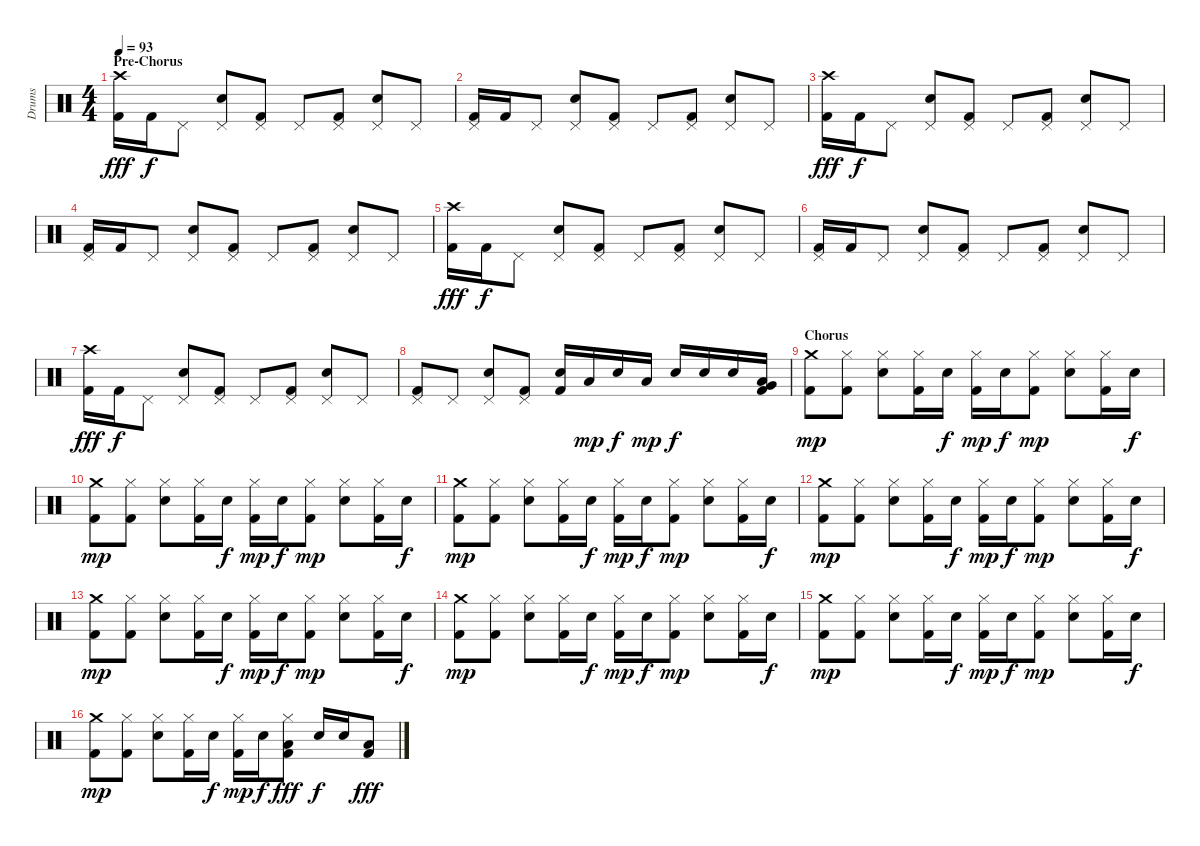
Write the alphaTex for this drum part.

\track ("Drums" "Drums") {instrument percussion}
\staff {score}
\articulation defaults
\ts (4 4)
\section ("" "Pre-Chorus")
\tempo 93
\clef neutral
\ks c
("Crash high (hit)" "Kick (hit) 2").16{dy fff} "Kick (hit) 2".16{dy f} "Pedal Hi-Hat (hit)".8 ("Pedal Hi-Hat (hit)" "Electric Snare (hit)").8 ("Pedal Hi-Hat (hit)" "Kick (hit) 2").8 "Pedal Hi-Hat (hit)".8 ("Pedal Hi-Hat (hit)" "Kick (hit) 2").8 ("Pedal Hi-Hat (hit)" "Electric Snare (hit)").8 "Pedal Hi-Hat (hit)".8 |
("Pedal Hi-Hat (hit)" "Kick (hit) 2").16 "Kick (hit) 2".16 "Pedal Hi-Hat (hit)".8 ("Pedal Hi-Hat (hit)" "Electric Snare (hit)").8 ("Pedal Hi-Hat (hit)" "Kick (hit) 2").8 "Pedal Hi-Hat (hit)".8 ("Pedal Hi-Hat (hit)" "Kick (hit) 2").8 ("Pedal Hi-Hat (hit)" "Electric Snare (hit)").8 "Pedal Hi-Hat (hit)".8 |
("Crash high (hit)" "Kick (hit) 2").16{dy fff} "Kick (hit) 2".16{dy f} "Pedal Hi-Hat (hit)".8 ("Pedal Hi-Hat (hit)" "Electric Snare (hit)").8 ("Pedal Hi-Hat (hit)" "Kick (hit) 2").8 "Pedal Hi-Hat (hit)".8 ("Pedal Hi-Hat (hit)" "Kick (hit) 2").8 ("Pedal Hi-Hat (hit)" "Electric Snare (hit)").8 "Pedal Hi-Hat (hit)".8 |
("Pedal Hi-Hat (hit)" "Kick (hit) 2").16 "Kick (hit) 2".16 "Pedal Hi-Hat (hit)".8 ("Pedal Hi-Hat (hit)" "Electric Snare (hit)").8 ("Pedal Hi-Hat (hit)" "Kick (hit) 2").8 "Pedal Hi-Hat (hit)".8 ("Pedal Hi-Hat (hit)" "Kick (hit) 2").8 ("Pedal Hi-Hat (hit)" "Electric Snare (hit)").8 "Pedal Hi-Hat (hit)".8 |
("Crash high (hit)" "Kick (hit) 2").16{dy fff} "Kick (hit) 2".16{dy f} "Pedal Hi-Hat (hit)".8 ("Pedal Hi-Hat (hit)" "Electric Snare (hit)").8 ("Pedal Hi-Hat (hit)" "Kick (hit) 2").8 "Pedal Hi-Hat (hit)".8 ("Pedal Hi-Hat (hit)" "Kick (hit) 2").8 ("Pedal Hi-Hat (hit)" "Electric Snare (hit)").8 "Pedal Hi-Hat (hit)".8 |
("Pedal Hi-Hat (hit)" "Kick (hit) 2").16 "Kick (hit) 2".16 "Pedal Hi-Hat (hit)".8 ("Pedal Hi-Hat (hit)" "Electric Snare (hit)").8 ("Pedal Hi-Hat (hit)" "Kick (hit) 2").8 "Pedal Hi-Hat (hit)".8 ("Pedal Hi-Hat (hit)" "Kick (hit) 2").8 ("Pedal Hi-Hat (hit)" "Electric Snare (hit)").8 "Pedal Hi-Hat (hit)".8 |
("Crash high (hit)" "Kick (hit) 2").16{dy fff} "Kick (hit) 2".16{dy f} "Pedal Hi-Hat (hit)".8 ("Pedal Hi-Hat (hit)" "Electric Snare (hit)").8 ("Pedal Hi-Hat (hit)" "Kick (hit) 2").8 "Pedal Hi-Hat (hit)".8 ("Pedal Hi-Hat (hit)" "Kick (hit) 2").8 ("Pedal Hi-Hat (hit)" "Electric Snare (hit)").8 "Pedal Hi-Hat (hit)".8 |
("Pedal Hi-Hat (hit)" "Kick (hit) 2").8 "Pedal Hi-Hat (hit)".8 ("Pedal Hi-Hat (hit)" "Electric Snare (hit)").8 ("Pedal Hi-Hat (hit)" "Kick (hit) 2").8 ("Electric Snare (hit)" "Kick (hit) 2").16 "Low Tom (hit)".16{dy mp} "Electric Snare (hit)".16{dy f} "Low Tom (hit)".16{dy mp} "Electric Snare (hit)".16{dy f} "Electric Snare (hit)".16 "Electric Snare (hit)".16 ("Low Tom (hit)" "Very Low Tom (hit)" "Kick (hit) 2").16 |
\section ("" "Chorus")
("Crash medium (hit)" "Kick (hit) 2").8{dy mp} ("Hi-Hat (closed)" "Kick (hit) 2").8 ("Hi-Hat (closed)" "Electric Snare (hit)").8 ("Hi-Hat (closed)" "Kick (hit) 2").16 "Electric Snare (hit)".16{dy f} ("Hi-Hat (closed)" "Kick (hit) 2").16{dy mp} "Electric Snare (hit)".16{dy f} ("Hi-Hat (closed)" "Kick (hit) 2").8{dy mp} ("Hi-Hat (closed)" "Electric Snare (hit)").8 ("Hi-Hat (closed)" "Kick (hit) 2").16 "Electric Snare (hit)".16{dy f} |
("Crash medium (hit)" "Kick (hit) 2").8{dy mp} ("Hi-Hat (closed)" "Kick (hit) 2").8 ("Hi-Hat (closed)" "Electric Snare (hit)").8 ("Hi-Hat (closed)" "Kick (hit) 2").16 "Electric Snare (hit)".16{dy f} ("Hi-Hat (closed)" "Kick (hit) 2").16{dy mp} "Electric Snare (hit)".16{dy f} ("Hi-Hat (closed)" "Kick (hit) 2").8{dy mp} ("Hi-Hat (closed)" "Electric Snare (hit)").8 ("Hi-Hat (closed)" "Kick (hit) 2").16 "Electric Snare (hit)".16{dy f} |
("Crash medium (hit)" "Kick (hit) 2").8{dy mp} ("Hi-Hat (closed)" "Kick (hit) 2").8 ("Hi-Hat (closed)" "Electric Snare (hit)").8 ("Hi-Hat (closed)" "Kick (hit) 2").16 "Electric Snare (hit)".16{dy f} ("Hi-Hat (closed)" "Kick (hit) 2").16{dy mp} "Electric Snare (hit)".16{dy f} ("Hi-Hat (closed)" "Kick (hit) 2").8{dy mp} ("Hi-Hat (closed)" "Electric Snare (hit)").8 ("Hi-Hat (closed)" "Kick (hit) 2").16 "Electric Snare (hit)".16{dy f} |
("Crash medium (hit)" "Kick (hit) 2").8{dy mp} ("Hi-Hat (closed)" "Kick (hit) 2").8 ("Hi-Hat (closed)" "Electric Snare (hit)").8 ("Hi-Hat (closed)" "Kick (hit) 2").16 "Electric Snare (hit)".16{dy f} ("Hi-Hat (closed)" "Kick (hit) 2").16{dy mp} "Electric Snare (hit)".16{dy f} ("Hi-Hat (closed)" "Kick (hit) 2").8{dy mp} ("Hi-Hat (closed)" "Electric Snare (hit)").8 ("Hi-Hat (closed)" "Kick (hit) 2").16 "Electric Snare (hit)".16{dy f} |
("Crash medium (hit)" "Kick (hit) 2").8{dy mp} ("Hi-Hat (closed)" "Kick (hit) 2").8 ("Hi-Hat (closed)" "Electric Snare (hit)").8 ("Hi-Hat (closed)" "Kick (hit) 2").16 "Electric Snare (hit)".16{dy f} ("Hi-Hat (closed)" "Kick (hit) 2").16{dy mp} "Electric Snare (hit)".16{dy f} ("Hi-Hat (closed)" "Kick (hit) 2").8{dy mp} ("Hi-Hat (closed)" "Electric Snare (hit)").8 ("Hi-Hat (closed)" "Kick (hit) 2").16 "Electric Snare (hit)".16{dy f} |
("Crash medium (hit)" "Kick (hit) 2").8{dy mp} ("Hi-Hat (closed)" "Kick (hit) 2").8 ("Hi-Hat (closed)" "Electric Snare (hit)").8 ("Hi-Hat (closed)" "Kick (hit) 2").16 "Electric Snare (hit)".16{dy f} ("Hi-Hat (closed)" "Kick (hit) 2").16{dy mp} "Electric Snare (hit)".16{dy f} ("Hi-Hat (closed)" "Kick (hit) 2").8{dy mp} ("Hi-Hat (closed)" "Electric Snare (hit)").8 ("Hi-Hat (closed)" "Kick (hit) 2").16 "Electric Snare (hit)".16{dy f} |
("Crash medium (hit)" "Kick (hit) 2").8{dy mp} ("Hi-Hat (closed)" "Kick (hit) 2").8 ("Hi-Hat (closed)" "Electric Snare (hit)").8 ("Hi-Hat (closed)" "Kick (hit) 2").16 "Electric Snare (hit)".16{dy f} ("Hi-Hat (closed)" "Kick (hit) 2").16{dy mp} "Electric Snare (hit)".16{dy f} ("Hi-Hat (closed)" "Kick (hit) 2").8{dy mp} ("Hi-Hat (closed)" "Electric Snare (hit)").8 ("Hi-Hat (closed)" "Kick (hit) 2").16 "Electric Snare (hit)".16{dy f} |
("Crash medium (hit)" "Kick (hit) 2").8{dy mp} ("Hi-Hat (closed)" "Kick (hit) 2").8 ("Hi-Hat (closed)" "Electric Snare (hit)").8 ("Hi-Hat (closed)" "Kick (hit) 2").16 "Electric Snare (hit)".16{dy f} ("Hi-Hat (closed)" "Kick (hit) 2").16{dy mp} "Electric Snare (hit)".16{dy f} ("Hi-Hat (closed)" "Low Floor Tom (hit)" "Kick (hit) 2").8{dy fff} "Electric Snare (hit)".16{dy f} "Electric Snare (hit)".16 ("Low Floor Tom (hit)" "Kick (hit) 2").8{dy fff}
